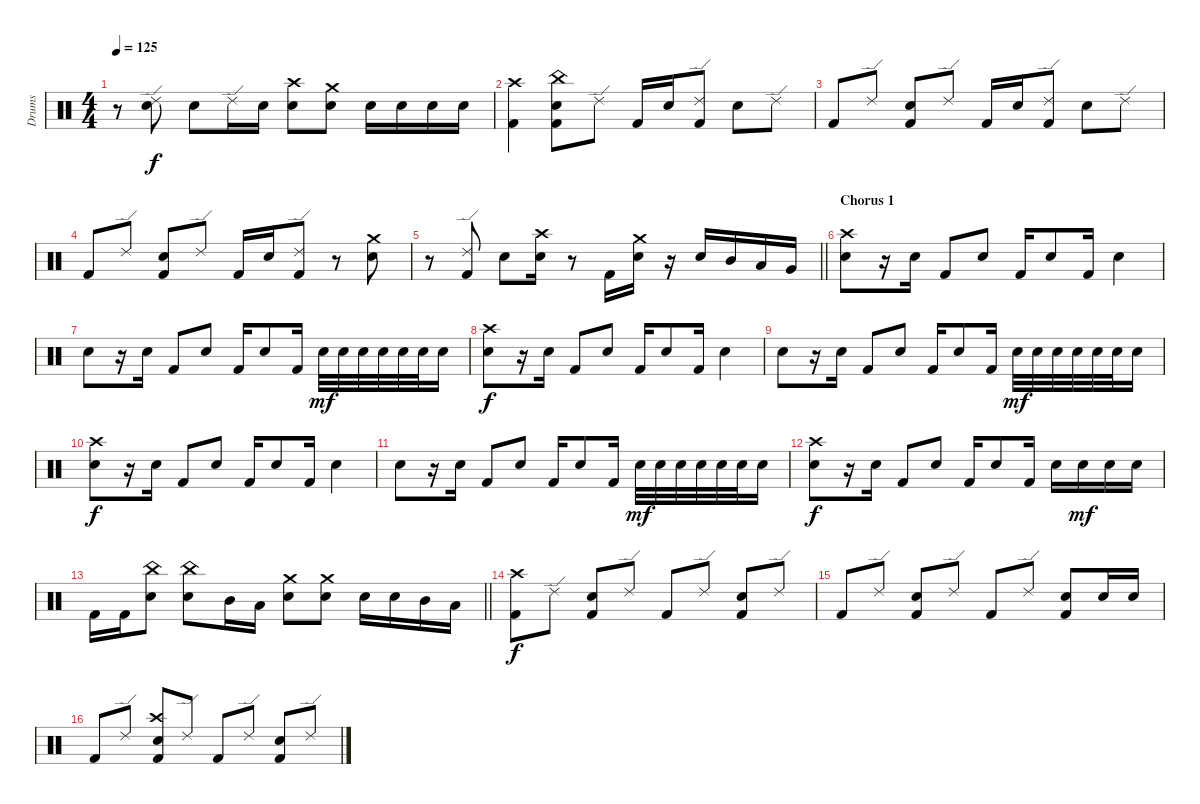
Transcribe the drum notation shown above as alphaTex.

\track ("Drums" "Drums") {instrument percussion}
\staff
\articulation defaults
\ts (4 4)
\tempo 125
\clef neutral
\ks c
r.8{dy f} ("Ride (edge) 2" "Electric Snare (hit)").8 "Electric Snare (hit)".8 "Ride (edge) 2".16 "Electric Snare (hit)".16 ("Crash high (hit)" "Electric Snare (hit)").8 ("Crash medium (hit)" "Electric Snare (hit)").8 "Electric Snare (hit)".16 "Electric Snare (hit)".16 "Electric Snare (hit)".16 "Electric Snare (hit)".16 |
("Crash high (hit)" "Kick (hit) 2").4 ("China (hit)" "Electric Snare (hit)" "Kick (hit) 2").8 "Ride (edge) 2".8 "Kick (hit) 2".16 "Electric Snare (hit)".16 ("Ride (edge) 2" "Kick (hit) 2").8 "Electric Snare (hit)".8 "Ride (edge) 2".8 |
"Kick (hit) 2".8 "Ride (edge) 2".8 ("Electric Snare (hit)" "Kick (hit) 2").8 "Ride (edge) 2".8 "Kick (hit) 2".16 "Electric Snare (hit)".16 ("Ride (edge) 2" "Kick (hit) 2").8 "Electric Snare (hit)".8 "Ride (edge) 2".8 |
"Kick (hit) 2".8 "Ride (edge) 2".8 ("Electric Snare (hit)" "Kick (hit) 2").8 "Ride (edge) 2".8 "Kick (hit) 2".16 "Electric Snare (hit)".16 ("Ride (edge) 2" "Kick (hit) 2").8 r.8 ("Crash medium (hit)" "Electric Snare (hit)").8 |
\barLineRight lightlight
r.8 ("Ride (edge) 2" "Kick (hit) 2").8 "Electric Snare (hit)".8 ("Crash high (hit)" "Electric Snare (hit)").16 r.8 "Kick (hit) 2".16 ("Crash medium (hit)" "Electric Snare (hit)").16 r.16 "Electric Snare (hit)".16 "Mid Tom (hit)".16 "Low Tom (hit)".16 "Very Low Tom (hit)".16 |
\section ("" "Chorus 1")
("Crash high (hit)" "Electric Snare (hit)").8 r.16 "Electric Snare (hit)".16 "Kick (hit) 2".8 "Electric Snare (hit)".8 "Kick (hit) 2".16 "Electric Snare (hit)".8 "Kick (hit) 2".16 "Electric Snare (hit)".4 |
"Electric Snare (hit)".8 r.16 "Electric Snare (hit)".16 "Kick (hit) 2".8 "Electric Snare (hit)".8 "Kick (hit) 2".16 "Electric Snare (hit)".8 "Kick (hit) 2".16 "Electric Snare (hit)".32{dy mf} "Electric Snare (hit)".32 "Electric Snare (hit)".32 "Electric Snare (hit)".32 "Electric Snare (hit)".32 "Electric Snare (hit)".32 "Electric Snare (hit)".16 |
("Crash high (hit)" "Electric Snare (hit)").8{dy f} r.16 "Electric Snare (hit)".16 "Kick (hit) 2".8 "Electric Snare (hit)".8 "Kick (hit) 2".16 "Electric Snare (hit)".8 "Kick (hit) 2".16 "Electric Snare (hit)".4 |
"Electric Snare (hit)".8 r.16 "Electric Snare (hit)".16 "Kick (hit) 2".8 "Electric Snare (hit)".8 "Kick (hit) 2".16 "Electric Snare (hit)".8 "Kick (hit) 2".16 "Electric Snare (hit)".32{dy mf} "Electric Snare (hit)".32 "Electric Snare (hit)".32 "Electric Snare (hit)".32 "Electric Snare (hit)".32 "Electric Snare (hit)".32 "Electric Snare (hit)".16 |
("Crash high (hit)" "Electric Snare (hit)").8{dy f} r.16 "Electric Snare (hit)".16 "Kick (hit) 2".8 "Electric Snare (hit)".8 "Kick (hit) 2".16 "Electric Snare (hit)".8 "Kick (hit) 2".16 "Electric Snare (hit)".4 |
"Electric Snare (hit)".8 r.16 "Electric Snare (hit)".16 "Kick (hit) 2".8 "Electric Snare (hit)".8 "Kick (hit) 2".16 "Electric Snare (hit)".8 "Kick (hit) 2".16 "Electric Snare (hit)".32{dy mf} "Electric Snare (hit)".32 "Electric Snare (hit)".32 "Electric Snare (hit)".32 "Electric Snare (hit)".32 "Electric Snare (hit)".32 "Electric Snare (hit)".16 |
("Crash high (hit)" "Electric Snare (hit)").8{dy f} r.16 "Electric Snare (hit)".16 "Kick (hit) 2".8 "Electric Snare (hit)".8 "Kick (hit) 2".16 "Electric Snare (hit)".8 "Kick (hit) 2".16 "Electric Snare (hit)".16 "Electric Snare (hit)".16{dy mf} "Electric Snare (hit)".16 "Electric Snare (hit)".16 |
\barLineRight lightlight "Kick (hit) 2".16 "Kick (hit) 2".16
("China (hit)" "Electric Snare (hit)").8 ("China (hit)" "Electric Snare (hit)").8 "Mid Tom (hit)".16 "Low Tom (hit)".16 ("Crash medium (hit)" "Electric Snare (hit)").8 ("Crash medium (hit)" "Electric Snare (hit)").8 "Electric Snare (hit)".16 "Electric Snare (hit)".16 "Mid Tom (hit)".16 "Low Tom (hit)".16 |
("Crash high (hit)" "Kick (hit) 2").8{dy f} "Ride (edge) 2".8 ("Electric Snare (hit)" "Kick (hit) 2").8 "Ride (edge) 2".8 "Kick (hit) 2".8 "Ride (edge) 2".8 ("Electric Snare (hit)" "Kick (hit) 2").8 "Ride (edge) 2".8 |
"Kick (hit) 2".8 "Ride (edge) 2".8 ("Electric Snare (hit)" "Kick (hit) 2").8 "Ride (edge) 2".8 "Kick (hit) 2".8 "Ride (edge) 2".8 ("Electric Snare (hit)" "Kick (hit) 2").8 "Electric Snare (hit)".16 "Electric Snare (hit)".16 |
"Kick (hit) 2".8 "Ride (edge) 2".8 ("Crash high (hit)" "Electric Snare (hit)" "Kick (hit) 2").8 "Ride (edge) 2".8 "Kick (hit) 2".8 "Ride (edge) 2".8 ("Electric Snare (hit)" "Kick (hit) 2").8 "Ride (edge) 2".8
